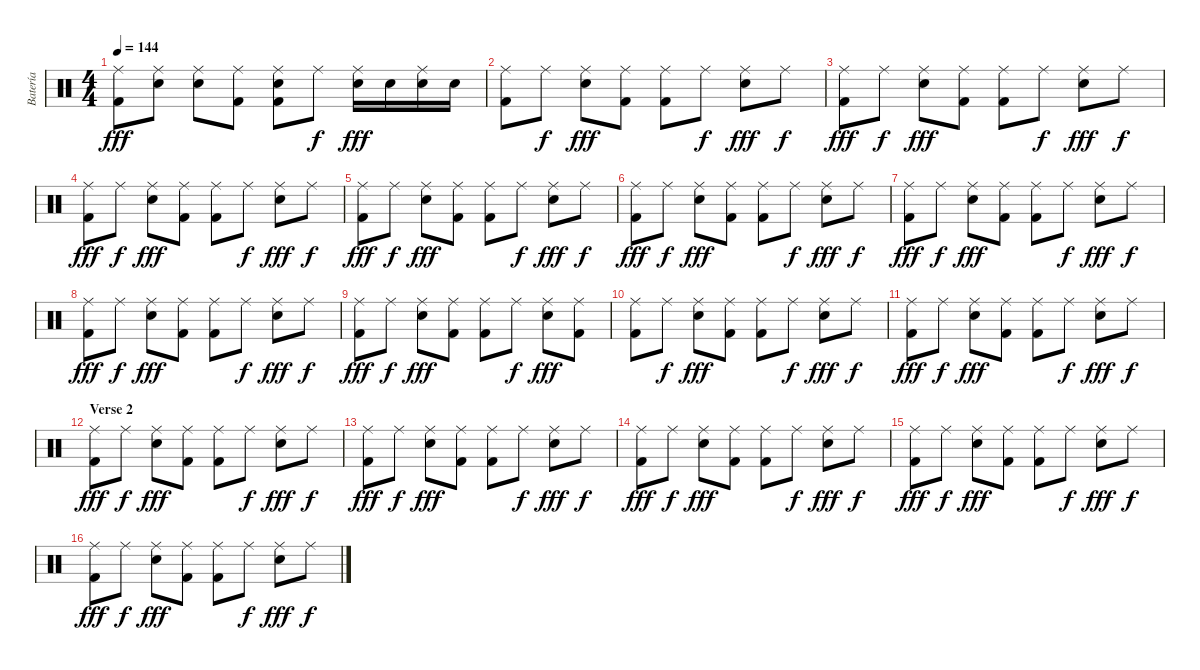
\track ("Batería" "Batería") {instrument percussion}
\staff {score}
\articulation defaults
\ts (4 4)
\tempo 144
\clef neutral
\ks c
("Ride (middle)" "Kick (hit) 2").8{dy fff} ("Ride (middle)" "Electric Snare (hit)").8 ("Ride (middle)" "Electric Snare (hit)").8 ("Ride (middle)" "Kick (hit) 2").8 ("Ride (middle)" "Electric Snare (hit)" "Kick (hit) 2").8 "Ride (middle)".8{dy f} ("Ride (middle)" "Electric Snare (hit)").16{dy fff} "Electric Snare (hit)".16 ("Ride (middle)" "Electric Snare (hit)").16 "Electric Snare (hit)".16 |
("Ride (middle)" "Kick (hit) 2").8 "Ride (middle)".8{dy f} ("Ride (middle)" "Electric Snare (hit)").8{dy fff} ("Ride (middle)" "Kick (hit) 2").8 ("Ride (middle)" "Kick (hit) 2").8 "Ride (middle)".8{dy f} ("Ride (middle)" "Electric Snare (hit)").8{dy fff} "Ride (middle)".8{dy f} |
("Ride (middle)" "Kick (hit) 2").8{dy fff} "Ride (middle)".8{dy f} ("Ride (middle)" "Electric Snare (hit)").8{dy fff} ("Ride (middle)" "Kick (hit) 2").8 ("Ride (middle)" "Kick (hit) 2").8 "Ride (middle)".8{dy f} ("Ride (middle)" "Electric Snare (hit)").8{dy fff} "Ride (middle)".8{dy f} |
("Ride (middle)" "Kick (hit) 2").8{dy fff} "Ride (middle)".8{dy f} ("Ride (middle)" "Electric Snare (hit)").8{dy fff} ("Ride (middle)" "Kick (hit) 2").8 ("Ride (middle)" "Kick (hit) 2").8 "Ride (middle)".8{dy f} ("Ride (middle)" "Electric Snare (hit)").8{dy fff} "Ride (middle)".8{dy f} |
("Ride (middle)" "Kick (hit) 2").8{dy fff} "Ride (middle)".8{dy f} ("Ride (middle)" "Electric Snare (hit)").8{dy fff} ("Ride (middle)" "Kick (hit) 2").8 ("Ride (middle)" "Kick (hit) 2").8 "Ride (middle)".8{dy f} ("Ride (middle)" "Electric Snare (hit)").8{dy fff} "Ride (middle)".8{dy f} |
("Ride (middle)" "Kick (hit) 2").8{dy fff} "Ride (middle)".8{dy f} ("Ride (middle)" "Electric Snare (hit)").8{dy fff} ("Ride (middle)" "Kick (hit) 2").8 ("Ride (middle)" "Kick (hit) 2").8 "Ride (middle)".8{dy f} ("Ride (middle)" "Electric Snare (hit)").8{dy fff} "Ride (middle)".8{dy f} |
("Ride (middle)" "Kick (hit) 2").8{dy fff} "Ride (middle)".8{dy f} ("Ride (middle)" "Electric Snare (hit)").8{dy fff} ("Ride (middle)" "Kick (hit) 2").8 ("Ride (middle)" "Kick (hit) 2").8 "Ride (middle)".8{dy f} ("Ride (middle)" "Electric Snare (hit)").8{dy fff} "Ride (middle)".8{dy f} |
("Ride (middle)" "Kick (hit) 2").8{dy fff} "Ride (middle)".8{dy f} ("Ride (middle)" "Electric Snare (hit)").8{dy fff} ("Ride (middle)" "Kick (hit) 2").8 ("Ride (middle)" "Kick (hit) 2").8 "Ride (middle)".8{dy f} ("Ride (middle)" "Electric Snare (hit)").8{dy fff} "Ride (middle)".8{dy f} |
("Ride (middle)" "Kick (hit) 2").8{dy fff} "Ride (middle)".8{dy f} ("Ride (middle)" "Electric Snare (hit)").8{dy fff} ("Ride (middle)" "Kick (hit) 2").8 ("Ride (middle)" "Kick (hit) 2").8 "Ride (middle)".8{dy f} ("Ride (middle)" "Electric Snare (hit)").8{dy fff} ("Ride (middle)" "Kick (hit) 2").8 |
("Ride (middle)" "Kick (hit) 2").8 "Ride (middle)".8{dy f} ("Ride (middle)" "Electric Snare (hit)").8{dy fff} ("Ride (middle)" "Kick (hit) 2").8 ("Ride (middle)" "Kick (hit) 2").8 "Ride (middle)".8{dy f} ("Ride (middle)" "Electric Snare (hit)").8{dy fff} "Ride (middle)".8{dy f} |
("Ride (middle)" "Kick (hit) 2").8{dy fff} "Ride (middle)".8{dy f} ("Ride (middle)" "Electric Snare (hit)").8{dy fff} ("Ride (middle)" "Kick (hit) 2").8 ("Ride (middle)" "Kick (hit) 2").8 "Ride (middle)".8{dy f} ("Ride (middle)" "Electric Snare (hit)").8{dy fff} "Ride (middle)".8{dy f} |
\section ("" "Verse 2")
("Ride (middle)" "Kick (hit) 2").8{dy fff} "Ride (middle)".8{dy f} ("Ride (middle)" "Electric Snare (hit)").8{dy fff} ("Ride (middle)" "Kick (hit) 2").8 ("Ride (middle)" "Kick (hit) 2").8 "Ride (middle)".8{dy f} ("Ride (middle)" "Electric Snare (hit)").8{dy fff} "Ride (middle)".8{dy f} |
("Ride (middle)" "Kick (hit) 2").8{dy fff} "Ride (middle)".8{dy f} ("Ride (middle)" "Electric Snare (hit)").8{dy fff} ("Ride (middle)" "Kick (hit) 2").8 ("Ride (middle)" "Kick (hit) 2").8 "Ride (middle)".8{dy f} ("Ride (middle)" "Electric Snare (hit)").8{dy fff} "Ride (middle)".8{dy f} |
("Ride (middle)" "Kick (hit) 2").8{dy fff} "Ride (middle)".8{dy f} ("Ride (middle)" "Electric Snare (hit)").8{dy fff} ("Ride (middle)" "Kick (hit) 2").8 ("Ride (middle)" "Kick (hit) 2").8 "Ride (middle)".8{dy f} ("Ride (middle)" "Electric Snare (hit)").8{dy fff} "Ride (middle)".8{dy f} |
("Ride (middle)" "Kick (hit) 2").8{dy fff} "Ride (middle)".8{dy f} ("Ride (middle)" "Electric Snare (hit)").8{dy fff} ("Ride (middle)" "Kick (hit) 2").8 ("Ride (middle)" "Kick (hit) 2").8 "Ride (middle)".8{dy f} ("Ride (middle)" "Electric Snare (hit)").8{dy fff} "Ride (middle)".8{dy f} |
("Ride (middle)" "Kick (hit) 2").8{dy fff} "Ride (middle)".8{dy f} ("Ride (middle)" "Electric Snare (hit)").8{dy fff} ("Ride (middle)" "Kick (hit) 2").8 ("Ride (middle)" "Kick (hit) 2").8 "Ride (middle)".8{dy f} ("Ride (middle)" "Electric Snare (hit)").8{dy fff} "Ride (middle)".8{dy f}
